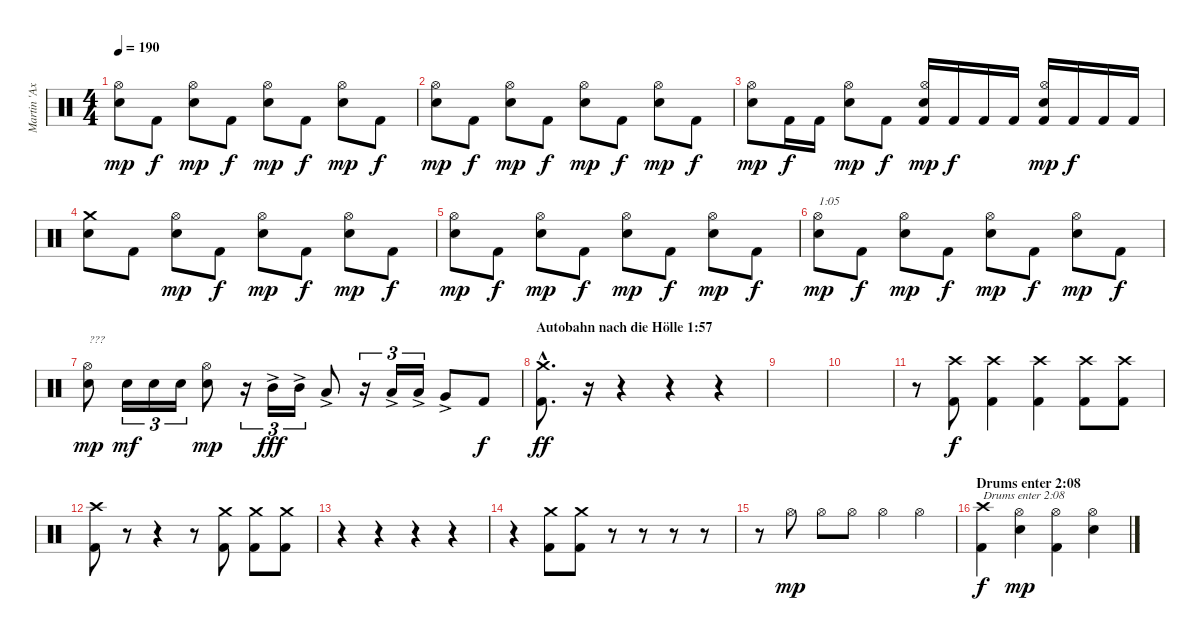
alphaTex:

\track ("Martin 'Axe' Axenroth" "Martin 'Ax") {instrument percussion}
\staff {score}
\articulation defaults
\ts (4 4)
\tempo 190
\clef neutral
\ks c
("Electric Snare (hit)" "Hi-Hat (open)").8{dy mp} "Kick (hit) 2".8{dy f} ("Electric Snare (hit)" "Hi-Hat (open)").8{dy mp} "Kick (hit) 2".8{dy f} ("Electric Snare (hit)" "Hi-Hat (open)").8{dy mp} "Kick (hit) 2".8{dy f} ("Electric Snare (hit)" "Hi-Hat (open)").8{dy mp} "Kick (hit) 2".8{dy f} |
("Electric Snare (hit)" "Hi-Hat (open)").8{dy mp} "Kick (hit) 2".8{dy f} ("Electric Snare (hit)" "Hi-Hat (open)").8{dy mp} "Kick (hit) 2".8{dy f} ("Electric Snare (hit)" "Hi-Hat (open)").8{dy mp} "Kick (hit) 2".8{dy f} ("Electric Snare (hit)" "Hi-Hat (open)").8{dy mp} "Kick (hit) 2".8{dy f} |
("Electric Snare (hit)" "Hi-Hat (open)").8{dy mp} "Kick (hit) 2".16{dy f} "Kick (hit) 2".16 ("Electric Snare (hit)" "Hi-Hat (open)").8{dy mp} "Kick (hit) 2".8{dy f} ("Kick (hit) 2" "Electric Snare (hit)" "Hi-Hat (open)").16{dy mp} "Kick (hit) 2".16{dy f} "Kick (hit) 2".16 "Kick (hit) 2".16 ("Kick (hit) 2" "Electric Snare (hit)" "Hi-Hat (open)").16{dy mp} "Kick (hit) 2".16{dy f} "Kick (hit) 2".16 "Kick (hit) 2".16 |
("Electric Snare (hit)" "Crash medium (hit)").8 "Kick (hit) 2".8 ("Electric Snare (hit)" "Hi-Hat (open)").8{dy mp} "Kick (hit) 2".8{dy f} ("Electric Snare (hit)" "Hi-Hat (open)").8{dy mp} "Kick (hit) 2".8{dy f} ("Electric Snare (hit)" "Hi-Hat (open)").8{dy mp} "Kick (hit) 2".8{dy f} |
("Electric Snare (hit)" "Hi-Hat (open)").8{dy mp} "Kick (hit) 2".8{dy f} ("Electric Snare (hit)" "Hi-Hat (open)").8{dy mp} "Kick (hit) 2".8{dy f} ("Electric Snare (hit)" "Hi-Hat (open)").8{dy mp} "Kick (hit) 2".8{dy f} ("Electric Snare (hit)" "Hi-Hat (open)").8{dy mp} "Kick (hit) 2".8{dy f} |
("Electric Snare (hit)" "Hi-Hat (open)").8{txt "1:05" dy mp} "Kick (hit) 2".8{dy f} ("Electric Snare (hit)" "Hi-Hat (open)").8{dy mp} "Kick (hit) 2".8{dy f} ("Electric Snare (hit)" "Hi-Hat (open)").8{dy mp} "Kick (hit) 2".8{dy f} ("Electric Snare (hit)" "Hi-Hat (open)").8{dy mp} "Kick (hit) 2".8{dy f} |
("Electric Snare (hit)" "Hi-Hat (open)").8{txt "???" dy mp} "Electric Snare (hit)".16{tu (3 2) dy mf} "Electric Snare (hit)".16{tu (3 2)} "Electric Snare (hit)".16{tu (3 2)} ("Electric Snare (hit)" "Hi-Hat (open)").8{dy mp} r.16{tu (3 2)} "Mid Tom (hit)"{ac}.16{tu (3 2) dy fff} "Mid Tom (hit)"{ac}.16{tu (3 2)} "Low Tom (hit)"{ac}.8 r.16{tu (3 2)} "Low Tom (hit)"{ac}.16{tu (3 2)} "Low Tom (hit)"{ac}.16{tu (3 2)} "Very Low Tom (hit)"{ac}.8 "Kick (hit) 2".8{dy f} |
\section ("" "Autobahn nach die Hölle 1:57")
("Kick (hit) 2"{hac} "Crash medium (hit)"{hac}).8{d dy ff} r.16{volume 0} r.4 r.4 r.4 |
|
|
r.8 ("Kick (hit) 2" "Crash high (hit)").8{dy f volume 13} ("Kick (hit) 2" "Crash high (hit)").4 ("Kick (hit) 2" "Crash high (hit)").4 ("Kick (hit) 2" "Crash high (hit)").8 ("Kick (hit) 2" "Crash high (hit)").8 |
("Kick (hit) 2" "Crash high (hit)").8 r.8{volume 0} r.4 r.8 ("Kick (hit) 2" "Crash medium (hit)").8{volume 13} ("Kick (hit) 2" "Crash medium (hit)").8 ("Kick (hit) 2" "Crash medium (hit)").8 |
r.4{volume 0} r.4 r.4 r.4 |
r.4 ("Kick (hit) 2" "Crash medium (hit)").8{volume 13} ("Kick (hit) 2" "Crash medium (hit)").8 r.8{volume 0} r.8 r.8 r.8 |
r.8 "Hi-Hat (open)".8{dy mp volume 13} "Hi-Hat (open)".8 "Hi-Hat (open)".8 "Hi-Hat (open)".4 "Hi-Hat (open)".4 |
\section ("" "Drums enter 2:08")
("Kick (hit) 2" "Crash high (hit)").4{txt "Drums enter 2:08" dy f} ("Electric Snare (hit)" "Hi-Hat (open)").4{dy mp} ("Kick (hit) 2" "Hi-Hat (open)").4 ("Electric Snare (hit)" "Hi-Hat (open)").4
